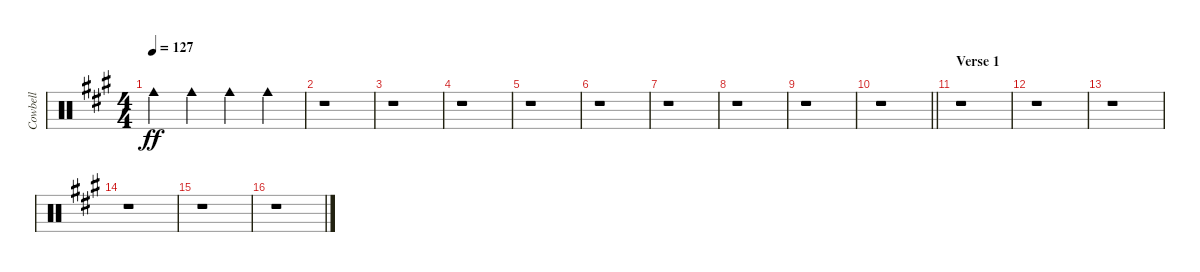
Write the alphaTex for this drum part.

\track ("Cowbell" "Cowbell") {instrument percussion}
\staff {score}
\articulation defaults
\ts (4 4)
\tempo 127
\clef neutral
\ks a "Cowbell medium (hit)".4{dy ff} "Cowbell medium (hit)".4 "Cowbell medium (hit)".4 "Cowbell medium (hit)".4
|
r.1 |
r.1 |
r.1 |
r.1 |
r.1 |
r.1 |
r.1 |
r.1 |
\barLineRight lightlight
r.1 |
\section ("" "Verse 1")
r.1 |
r.1 |
r.1 |
r.1 |
r.1 |
r.1
